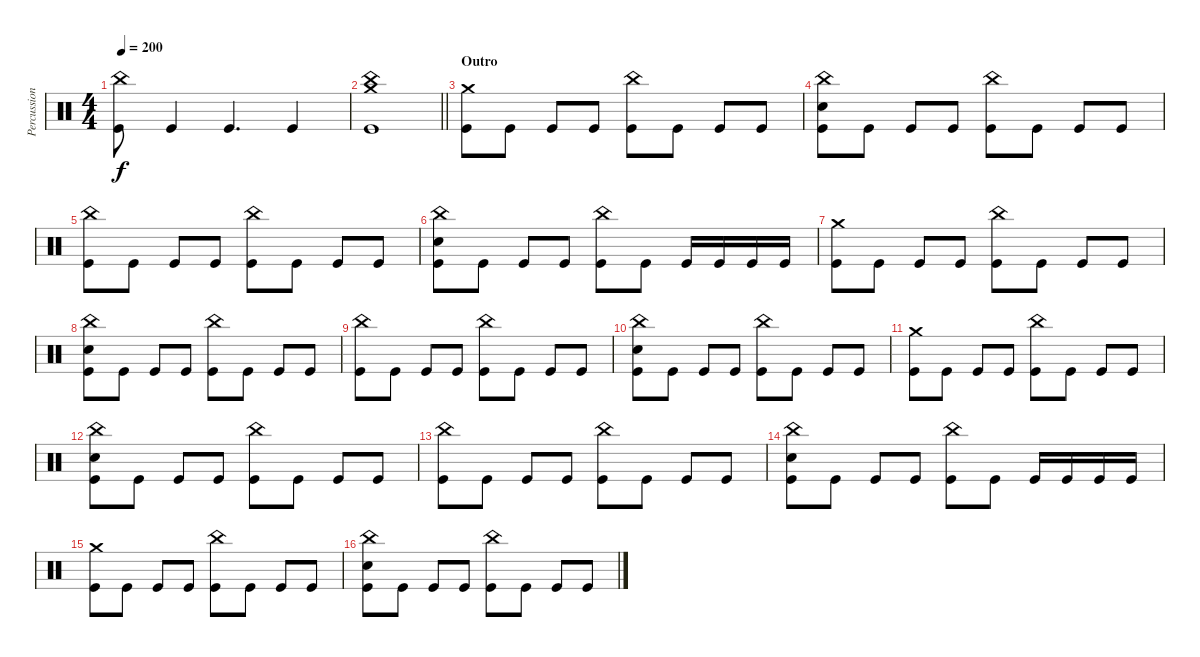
\track ("Percussion" "Percussion") {instrument percussion}
\staff {score}
\articulation defaults
\ts (4 4)
\tempo 200
\clef neutral
\ks c
("China (hit)" "Kick (hit)").8{dy f} "Kick (hit)".4 "Kick (hit)".4{d} "Kick (hit)".4 |
\barLineRight lightlight
("China (hit)" "Crash medium (hit)" "Kick (hit)").1 |
\section ("" "Outro")
("Crash medium (hit)" "Kick (hit)").8 "Kick (hit)".8 "Kick (hit)".8 "Kick (hit)".8 ("China (hit)" "Kick (hit)").8 "Kick (hit)".8 "Kick (hit)".8 "Kick (hit)".8 |
("China (hit)" "Electric Snare (hit)" "Kick (hit)").8 "Kick (hit)".8 "Kick (hit)".8 "Kick (hit)".8 ("China (hit)" "Kick (hit)").8 "Kick (hit)".8 "Kick (hit)".8 "Kick (hit)".8 |
("China (hit)" "Kick (hit)").8 "Kick (hit)".8 "Kick (hit)".8 "Kick (hit)".8 ("China (hit)" "Kick (hit)").8 "Kick (hit)".8 "Kick (hit)".8 "Kick (hit)".8 |
("China (hit)" "Electric Snare (hit)" "Kick (hit)").8 "Kick (hit)".8 "Kick (hit)".8 "Kick (hit)".8 ("China (hit)" "Kick (hit)").8 "Kick (hit)".8 "Kick (hit)".16 "Kick (hit)".16 "Kick (hit)".16 "Kick (hit)".16 |
("Crash medium (hit)" "Kick (hit)").8 "Kick (hit)".8 "Kick (hit)".8 "Kick (hit)".8 ("China (hit)" "Kick (hit)").8 "Kick (hit)".8 "Kick (hit)".8 "Kick (hit)".8 |
("China (hit)" "Electric Snare (hit)" "Kick (hit)").8 "Kick (hit)".8 "Kick (hit)".8 "Kick (hit)".8 ("China (hit)" "Kick (hit)").8 "Kick (hit)".8 "Kick (hit)".8 "Kick (hit)".8 |
("China (hit)" "Kick (hit)").8 "Kick (hit)".8 "Kick (hit)".8 "Kick (hit)".8 ("China (hit)" "Kick (hit)").8 "Kick (hit)".8 "Kick (hit)".8 "Kick (hit)".8 |
("China (hit)" "Electric Snare (hit)" "Kick (hit)").8 "Kick (hit)".8 "Kick (hit)".8 "Kick (hit)".8 ("China (hit)" "Kick (hit)").8 "Kick (hit)".8 "Kick (hit)".8 "Kick (hit)".8 |
("Crash medium (hit)" "Kick (hit)").8 "Kick (hit)".8 "Kick (hit)".8 "Kick (hit)".8 ("China (hit)" "Kick (hit)").8 "Kick (hit)".8 "Kick (hit)".8 "Kick (hit)".8 |
("China (hit)" "Electric Snare (hit)" "Kick (hit)").8 "Kick (hit)".8 "Kick (hit)".8 "Kick (hit)".8 ("China (hit)" "Kick (hit)").8 "Kick (hit)".8 "Kick (hit)".8 "Kick (hit)".8 |
("China (hit)" "Kick (hit)").8 "Kick (hit)".8 "Kick (hit)".8 "Kick (hit)".8 ("China (hit)" "Kick (hit)").8 "Kick (hit)".8 "Kick (hit)".8 "Kick (hit)".8 |
("China (hit)" "Electric Snare (hit)" "Kick (hit)").8 "Kick (hit)".8 "Kick (hit)".8 "Kick (hit)".8 ("China (hit)" "Kick (hit)").8 "Kick (hit)".8 "Kick (hit)".16 "Kick (hit)".16 "Kick (hit)".16 "Kick (hit)".16 |
("Crash medium (hit)" "Kick (hit)").8 "Kick (hit)".8 "Kick (hit)".8 "Kick (hit)".8 ("China (hit)" "Kick (hit)").8 "Kick (hit)".8 "Kick (hit)".8 "Kick (hit)".8 |
("China (hit)" "Electric Snare (hit)" "Kick (hit)").8 "Kick (hit)".8 "Kick (hit)".8 "Kick (hit)".8 ("China (hit)" "Kick (hit)").8 "Kick (hit)".8 "Kick (hit)".8 "Kick (hit)".8
